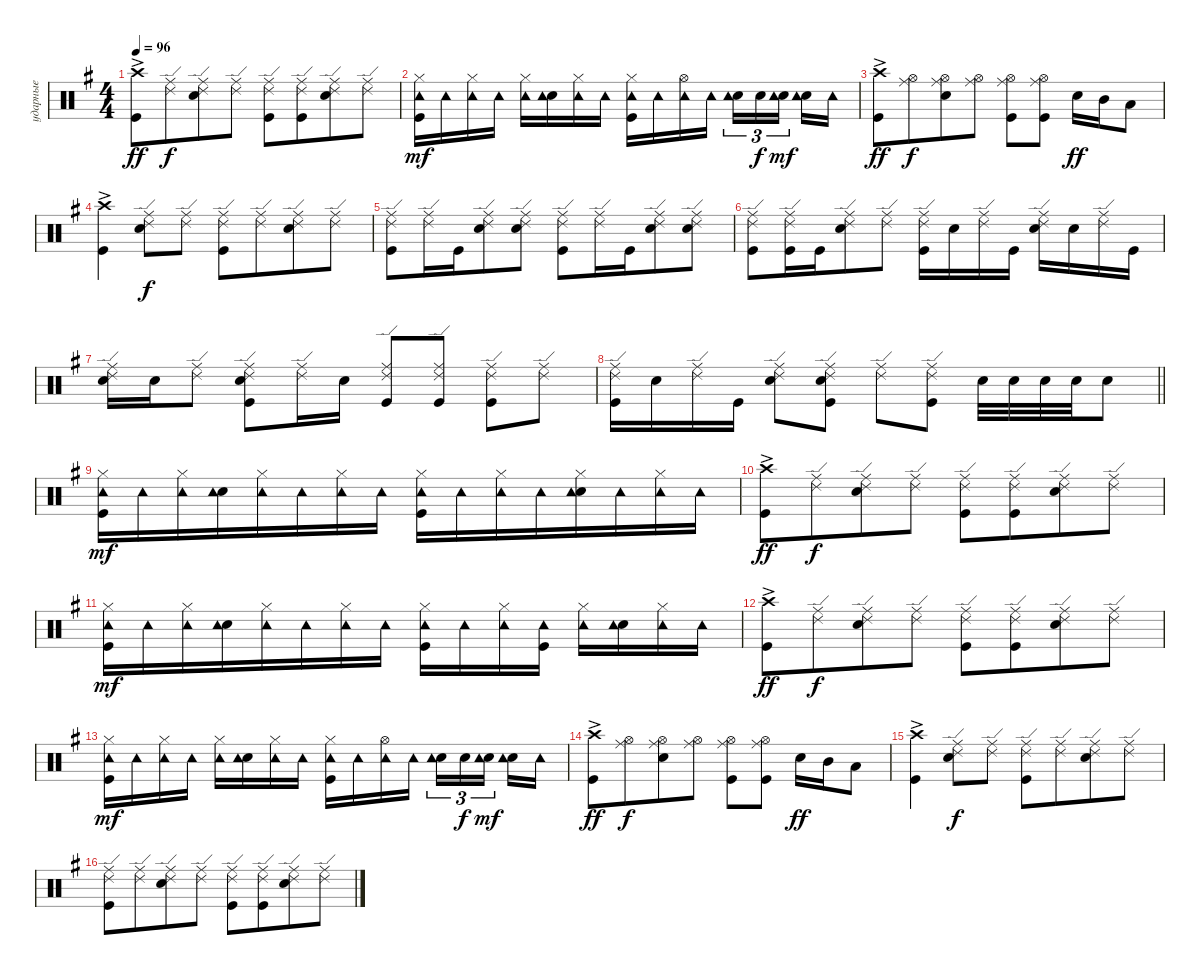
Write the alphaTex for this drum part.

\track ("ударные" "ударные") {instrument percussion}
\staff {score}
\articulation defaults
\ts (4 4)
\tempo 96
\clef neutral
\ks eminor
("Kick (hit)" "Crash high (hit)"{ac}).8{dy ff} ("Ride (middle)" "Ride (edge) 2").8{dy f beam merge} ("Snare (hit) 2" "Ride (middle)" "Ride (edge) 2").8 ("Ride (middle)" "Ride (edge) 2").8 ("Kick (hit)" "Ride (middle)" "Ride (edge) 2").8 ("Kick (hit)" "Ride (middle)" "Ride (edge) 2").8{beam merge} ("Ride (middle)" "Ride (edge) 2" "Snare (hit) 2").8 ("Ride (middle)" "Ride (edge) 2").8 |
("Kick (hit)" "Hi-Hat (closed)" "Tambourine (hit)").16{dy mf} "Tambourine (hit)".16 ("Hi-Hat (closed)" "Tambourine (hit)").16 "Tambourine (hit)".16 ("Hi-Hat (closed)" "Tambourine (hit)").16 ("Snare (hit) 2" "Tambourine (hit)").16 ("Hi-Hat (closed)" "Tambourine (hit)").16 "Tambourine (hit)".16 ("Kick (hit)" "Hi-Hat (closed)" "Tambourine (hit)").16 "Tambourine (hit)".16 ("Hi-Hat (open)" "Tambourine (hit)").16 "Tambourine (hit)".16 ("Snare (hit) 2" "Tambourine (hit)").16{tu (3 2)} "Snare (hit) 2".16{tu (3 2) dy f} ("Snare (hit) 2" "Tambourine (hit)").16{tu (3 2) dy mf beam splitsecondary} ("Snare (hit) 2" "Tambourine (hit)").16 "Tambourine (hit)".16 |
("Kick (hit)" "Crash high (hit)"{ac}).8{dy ff} ("Hi-Hat (open)" "Ride (middle)").8{dy f beam merge} ("Snare (hit) 2" "Hi-Hat (open)" "Ride (middle)").8 ("Hi-Hat (open)" "Ride (middle)").8 ("Kick (hit)" "Hi-Hat (open)" "Ride (middle)").8 ("Kick (hit)" "Hi-Hat (open)" "Ride (middle)").8 "Snare (hit) 2".16{dy ff} "Mid Tom (hit)".16 "Low Tom (hit)".8 |
("Kick (hit)" "Crash high (hit)"{ac}).4 ("Snare (hit) 2" "Ride (middle)" "Ride (edge) 2").8{dy f} ("Ride (middle)" "Ride (edge) 2").8 ("Kick (hit)" "Ride (middle)" "Ride (edge) 2").8 ("Ride (middle)" "Ride (edge) 2").8{beam merge} ("Snare (hit) 2" "Ride (middle)" "Ride (edge) 2").8 ("Ride (middle)" "Ride (edge) 2").8 |
("Kick (hit)" "Ride (middle)" "Ride (edge) 2").8 ("Ride (middle)" "Ride (edge) 2").16 "Kick (hit)".16{beam merge} ("Snare (hit) 2" "Ride (middle)" "Ride (edge) 2").8 ("Snare (hit) 2" "Ride (middle)" "Ride (edge) 2").8 ("Kick (hit)" "Ride (middle)" "Ride (edge) 2").8 ("Ride (middle)" "Ride (edge) 2").16 "Kick (hit)".16{beam merge} ("Snare (hit) 2" "Ride (middle)" "Ride (edge) 2").8 ("Snare (hit) 2" "Ride (middle)" "Ride (edge) 2").8 |
("Kick (hit)" "Ride (middle)" "Ride (edge) 2").8 ("Ride (middle)" "Ride (edge) 2" "Kick (hit)").16 "Kick (hit)".16{beam merge} ("Snare (hit) 2" "Ride (middle)" "Ride (edge) 2").8 ("Ride (middle)" "Ride (edge) 2").8 ("Ride (middle)" "Ride (edge) 2" "Kick (hit)").16 "Snare (hit) 2".16 ("Ride (middle)" "Ride (edge) 2").16 "Kick (hit)".16 ("Ride (middle)" "Ride (edge) 2" "Snare (hit) 2").16 "Snare (hit) 2".16 ("Ride (middle)" "Ride (edge) 2").16 "Kick (hit)".16 |
("Ride (middle)" "Ride (edge) 2" "Snare (hit) 2").16 "Snare (hit) 2".16 ("Ride (middle)" "Ride (edge) 2").8 ("Snare (hit) 2" "Kick (hit)" "Ride (middle)" "Ride (edge) 2").8 ("Ride (middle)" "Ride (edge) 2").16 "Snare (hit) 2".16 ("Kick (hit)" "Ride (middle)" "Ride (edge) 2").8 ("Kick (hit)" "Ride (middle)" "Ride (edge) 2").8 ("Kick (hit)" "Ride (middle)" "Ride (edge) 2").8 ("Ride (middle)" "Ride (edge) 2").8 |
\barLineRight lightlight
("Ride (middle)" "Ride (edge) 2" "Kick (hit)").16 "Snare (hit) 2".16 ("Ride (middle)" "Ride (edge) 2").16 "Kick (hit)".16 ("Snare (hit) 2" "Ride (middle)" "Ride (edge) 2").8 ("Snare (hit) 2" "Ride (middle)" "Ride (edge) 2" "Kick (hit)").8 ("Ride (middle)" "Ride (edge) 2").8 ("Ride (middle)" "Ride (edge) 2" "Kick (hit)").8 "Snare (hit) 2".32 "Snare (hit) 2".32 "Snare (hit) 2".32 "Snare (hit) 2".32 "Snare (hit) 2".8 |
\section ("" "")
("Kick (hit)" "Hi-Hat (closed)" "Tambourine (hit)").16{dy mf} "Tambourine (hit)".16 ("Hi-Hat (closed)" "Tambourine (hit)").16 ("Snare (hit) 2" "Tambourine (hit)").16{beam merge} ("Hi-Hat (closed)" "Tambourine (hit)").16 "Tambourine (hit)".16 ("Hi-Hat (closed)" "Tambourine (hit)").16 "Tambourine (hit)".16 ("Kick (hit)" "Hi-Hat (closed)" "Tambourine (hit)").16 "Tambourine (hit)".16 ("Hi-Hat (closed)" "Tambourine (hit)").16 "Tambourine (hit)".16{beam merge} ("Snare (hit) 2" "Hi-Hat (closed)" "Tambourine (hit)").16 "Tambourine (hit)".16 ("Tambourine (hit)" "Hi-Hat (closed)").16 "Tambourine (hit)".16 |
("Kick (hit)" "Crash high (hit)"{ac}).8{dy ff} ("Ride (middle)" "Ride (edge) 2").8{dy f beam merge} ("Snare (hit) 2" "Ride (middle)" "Ride (edge) 2").8 ("Ride (middle)" "Ride (edge) 2").8 ("Kick (hit)" "Ride (middle)" "Ride (edge) 2").8 ("Kick (hit)" "Ride (middle)" "Ride (edge) 2").8{beam merge} ("Ride (middle)" "Ride (edge) 2" "Snare (hit) 2").8 ("Ride (middle)" "Ride (edge) 2").8 |
("Kick (hit)" "Hi-Hat (closed)" "Tambourine (hit)").16{dy mf} "Tambourine (hit)".16 ("Hi-Hat (closed)" "Tambourine (hit)").16 ("Snare (hit) 2" "Tambourine (hit)").16{beam merge} ("Hi-Hat (closed)" "Tambourine (hit)").16 "Tambourine (hit)".16 ("Hi-Hat (closed)" "Tambourine (hit)").16 "Tambourine (hit)".16 ("Kick (hit)" "Hi-Hat (closed)" "Tambourine (hit)").16 "Tambourine (hit)".16 ("Hi-Hat (closed)" "Tambourine (hit)").16 ("Kick (hit)" "Tambourine (hit)").16 ("Hi-Hat (closed)" "Tambourine (hit)").16 ("Snare (hit) 2" "Tambourine (hit)").16 ("Hi-Hat (closed)" "Tambourine (hit)").16 "Tambourine (hit)".16 |
("Kick (hit)" "Crash high (hit)"{ac}).8{dy ff} ("Ride (middle)" "Ride (edge) 2").8{dy f beam merge} ("Snare (hit) 2" "Ride (middle)" "Ride (edge) 2").8 ("Ride (middle)" "Ride (edge) 2").8 ("Kick (hit)" "Ride (middle)" "Ride (edge) 2").8 ("Kick (hit)" "Ride (middle)" "Ride (edge) 2").8{beam merge} ("Ride (middle)" "Ride (edge) 2" "Snare (hit) 2").8 ("Ride (middle)" "Ride (edge) 2").8 |
("Kick (hit)" "Hi-Hat (closed)" "Tambourine (hit)").16{dy mf} "Tambourine (hit)".16 ("Hi-Hat (closed)" "Tambourine (hit)").16 "Tambourine (hit)".16 ("Hi-Hat (closed)" "Tambourine (hit)").16 ("Snare (hit) 2" "Tambourine (hit)").16 ("Hi-Hat (closed)" "Tambourine (hit)").16 "Tambourine (hit)".16 ("Kick (hit)" "Hi-Hat (closed)" "Tambourine (hit)").16 "Tambourine (hit)".16 ("Hi-Hat (open)" "Tambourine (hit)").16 "Tambourine (hit)".16 ("Snare (hit) 2" "Tambourine (hit)").16{tu (3 2)} "Snare (hit) 2".16{tu (3 2) dy f} ("Snare (hit) 2" "Tambourine (hit)").16{tu (3 2) dy mf beam splitsecondary} ("Snare (hit) 2" "Tambourine (hit)").16 "Tambourine (hit)".16 |
("Kick (hit)" "Crash high (hit)"{ac}).8{dy ff} ("Hi-Hat (open)" "Ride (middle)").8{dy f beam merge} ("Snare (hit) 2" "Hi-Hat (open)" "Ride (middle)").8 ("Hi-Hat (open)" "Ride (middle)").8 ("Kick (hit)" "Hi-Hat (open)" "Ride (middle)").8 ("Kick (hit)" "Hi-Hat (open)" "Ride (middle)").8 "Snare (hit) 2".16{dy ff} "Mid Tom (hit)".16 "Low Tom (hit)".8 |
("Kick (hit)" "Crash high (hit)"{ac}).4 ("Snare (hit) 2" "Ride (middle)" "Ride (edge) 2").8{dy f} ("Ride (middle)" "Ride (edge) 2").8 ("Kick (hit)" "Ride (middle)" "Ride (edge) 2").8 ("Ride (middle)" "Ride (edge) 2").8{beam merge} ("Snare (hit) 2" "Ride (middle)" "Ride (edge) 2").8 ("Ride (middle)" "Ride (edge) 2").8 |
("Kick (hit)" "Ride (middle)" "Ride (edge) 2").8 ("Ride (middle)" "Ride (edge) 2").8{beam merge} ("Snare (hit) 2" "Ride (middle)" "Ride (edge) 2").8 ("Ride (middle)" "Ride (edge) 2").8 ("Kick (hit)" "Ride (middle)" "Ride (edge) 2").8 ("Ride (middle)" "Ride (edge) 2" "Kick (hit)").8{beam merge} ("Snare (hit) 2" "Ride (middle)" "Ride (edge) 2").8 ("Ride (middle)" "Ride (edge) 2").8
